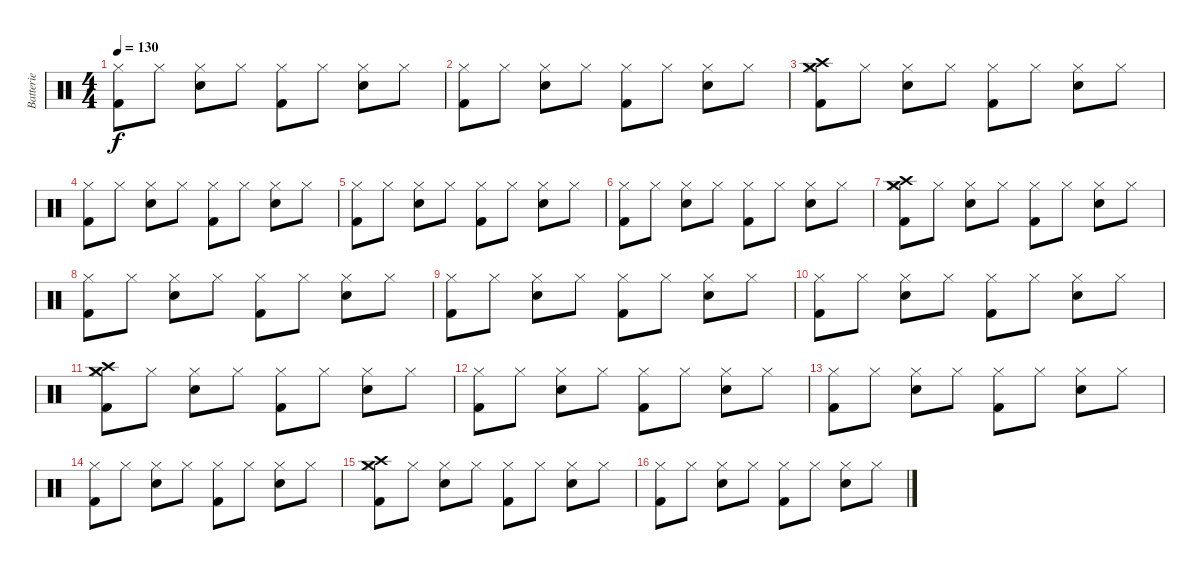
\track ("Batterie" "Batterie") {instrument percussion}
\staff {score}
\articulation defaults
\ts (4 4)
\tempo 130
\clef neutral
\ks c
("Hi-Hat (closed)" "Kick (hit) 2").8{dy f} "Hi-Hat (closed)".8 ("Hi-Hat (closed)" "Electric Snare (hit)").8 "Hi-Hat (closed)".8 ("Hi-Hat (closed)" "Kick (hit) 2").8 "Hi-Hat (closed)".8 ("Hi-Hat (closed)" "Electric Snare (hit)").8 "Hi-Hat (closed)".8 |
("Hi-Hat (closed)" "Kick (hit) 2").8 "Hi-Hat (closed)".8 ("Hi-Hat (closed)" "Electric Snare (hit)").8 "Hi-Hat (closed)".8 ("Hi-Hat (closed)" "Kick (hit) 2").8 "Hi-Hat (closed)".8 ("Hi-Hat (closed)" "Electric Snare (hit)").8 "Hi-Hat (closed)".8 |
("Hi-Hat (closed)" "Kick (hit) 2" "Crash high (hit)" "Crash medium (hit)").8 "Hi-Hat (closed)".8 ("Hi-Hat (closed)" "Electric Snare (hit)").8 "Hi-Hat (closed)".8 ("Hi-Hat (closed)" "Kick (hit) 2").8 "Hi-Hat (closed)".8 ("Hi-Hat (closed)" "Electric Snare (hit)").8 "Hi-Hat (closed)".8 |
("Hi-Hat (closed)" "Kick (hit) 2").8 "Hi-Hat (closed)".8 ("Hi-Hat (closed)" "Electric Snare (hit)").8 "Hi-Hat (closed)".8 ("Hi-Hat (closed)" "Kick (hit) 2").8 "Hi-Hat (closed)".8 ("Hi-Hat (closed)" "Electric Snare (hit)").8 "Hi-Hat (closed)".8 |
("Hi-Hat (closed)" "Kick (hit) 2").8 "Hi-Hat (closed)".8 ("Hi-Hat (closed)" "Electric Snare (hit)").8 "Hi-Hat (closed)".8 ("Hi-Hat (closed)" "Kick (hit) 2").8 "Hi-Hat (closed)".8 ("Hi-Hat (closed)" "Electric Snare (hit)").8 "Hi-Hat (closed)".8 |
("Hi-Hat (closed)" "Kick (hit) 2").8 "Hi-Hat (closed)".8 ("Hi-Hat (closed)" "Electric Snare (hit)").8 "Hi-Hat (closed)".8 ("Hi-Hat (closed)" "Kick (hit) 2").8 "Hi-Hat (closed)".8 ("Hi-Hat (closed)" "Electric Snare (hit)").8 "Hi-Hat (closed)".8 |
("Hi-Hat (closed)" "Kick (hit) 2" "Crash high (hit)" "Crash medium (hit)").8 "Hi-Hat (closed)".8 ("Hi-Hat (closed)" "Electric Snare (hit)").8 "Hi-Hat (closed)".8 ("Hi-Hat (closed)" "Kick (hit) 2").8 "Hi-Hat (closed)".8 ("Hi-Hat (closed)" "Electric Snare (hit)").8 "Hi-Hat (closed)".8 |
("Hi-Hat (closed)" "Kick (hit) 2").8 "Hi-Hat (closed)".8 ("Hi-Hat (closed)" "Electric Snare (hit)").8 "Hi-Hat (closed)".8 ("Hi-Hat (closed)" "Kick (hit) 2").8 "Hi-Hat (closed)".8 ("Hi-Hat (closed)" "Electric Snare (hit)").8 "Hi-Hat (closed)".8 |
("Hi-Hat (closed)" "Kick (hit) 2").8 "Hi-Hat (closed)".8 ("Hi-Hat (closed)" "Electric Snare (hit)").8 "Hi-Hat (closed)".8 ("Hi-Hat (closed)" "Kick (hit) 2").8 "Hi-Hat (closed)".8 ("Hi-Hat (closed)" "Electric Snare (hit)").8 "Hi-Hat (closed)".8 |
("Hi-Hat (closed)" "Kick (hit) 2").8 "Hi-Hat (closed)".8 ("Hi-Hat (closed)" "Electric Snare (hit)").8 "Hi-Hat (closed)".8 ("Hi-Hat (closed)" "Kick (hit) 2").8 "Hi-Hat (closed)".8 ("Hi-Hat (closed)" "Electric Snare (hit)").8 "Hi-Hat (closed)".8 |
("Hi-Hat (closed)" "Kick (hit) 2" "Crash high (hit)" "Crash medium (hit)").8 "Hi-Hat (closed)".8 ("Hi-Hat (closed)" "Electric Snare (hit)").8 "Hi-Hat (closed)".8 ("Hi-Hat (closed)" "Kick (hit) 2").8 "Hi-Hat (closed)".8 ("Hi-Hat (closed)" "Electric Snare (hit)").8 "Hi-Hat (closed)".8 |
("Hi-Hat (closed)" "Kick (hit) 2").8 "Hi-Hat (closed)".8 ("Hi-Hat (closed)" "Electric Snare (hit)").8 "Hi-Hat (closed)".8 ("Hi-Hat (closed)" "Kick (hit) 2").8 "Hi-Hat (closed)".8 ("Hi-Hat (closed)" "Electric Snare (hit)").8 "Hi-Hat (closed)".8 |
("Hi-Hat (closed)" "Kick (hit) 2").8 "Hi-Hat (closed)".8 ("Hi-Hat (closed)" "Electric Snare (hit)").8 "Hi-Hat (closed)".8 ("Hi-Hat (closed)" "Kick (hit) 2").8 "Hi-Hat (closed)".8 ("Hi-Hat (closed)" "Electric Snare (hit)").8 "Hi-Hat (closed)".8 |
("Hi-Hat (closed)" "Kick (hit) 2").8 "Hi-Hat (closed)".8 ("Hi-Hat (closed)" "Electric Snare (hit)").8 "Hi-Hat (closed)".8 ("Hi-Hat (closed)" "Kick (hit) 2").8 "Hi-Hat (closed)".8 ("Hi-Hat (closed)" "Electric Snare (hit)").8 "Hi-Hat (closed)".8 |
("Hi-Hat (closed)" "Kick (hit) 2" "Crash high (hit)" "Crash medium (hit)").8 "Hi-Hat (closed)".8 ("Hi-Hat (closed)" "Electric Snare (hit)").8 "Hi-Hat (closed)".8 ("Hi-Hat (closed)" "Kick (hit) 2").8 "Hi-Hat (closed)".8 ("Hi-Hat (closed)" "Electric Snare (hit)").8 "Hi-Hat (closed)".8 |
("Hi-Hat (closed)" "Kick (hit) 2").8 "Hi-Hat (closed)".8 ("Hi-Hat (closed)" "Electric Snare (hit)").8 "Hi-Hat (closed)".8 ("Hi-Hat (closed)" "Kick (hit) 2").8 "Hi-Hat (closed)".8 ("Hi-Hat (closed)" "Electric Snare (hit)").8 "Hi-Hat (closed)".8
